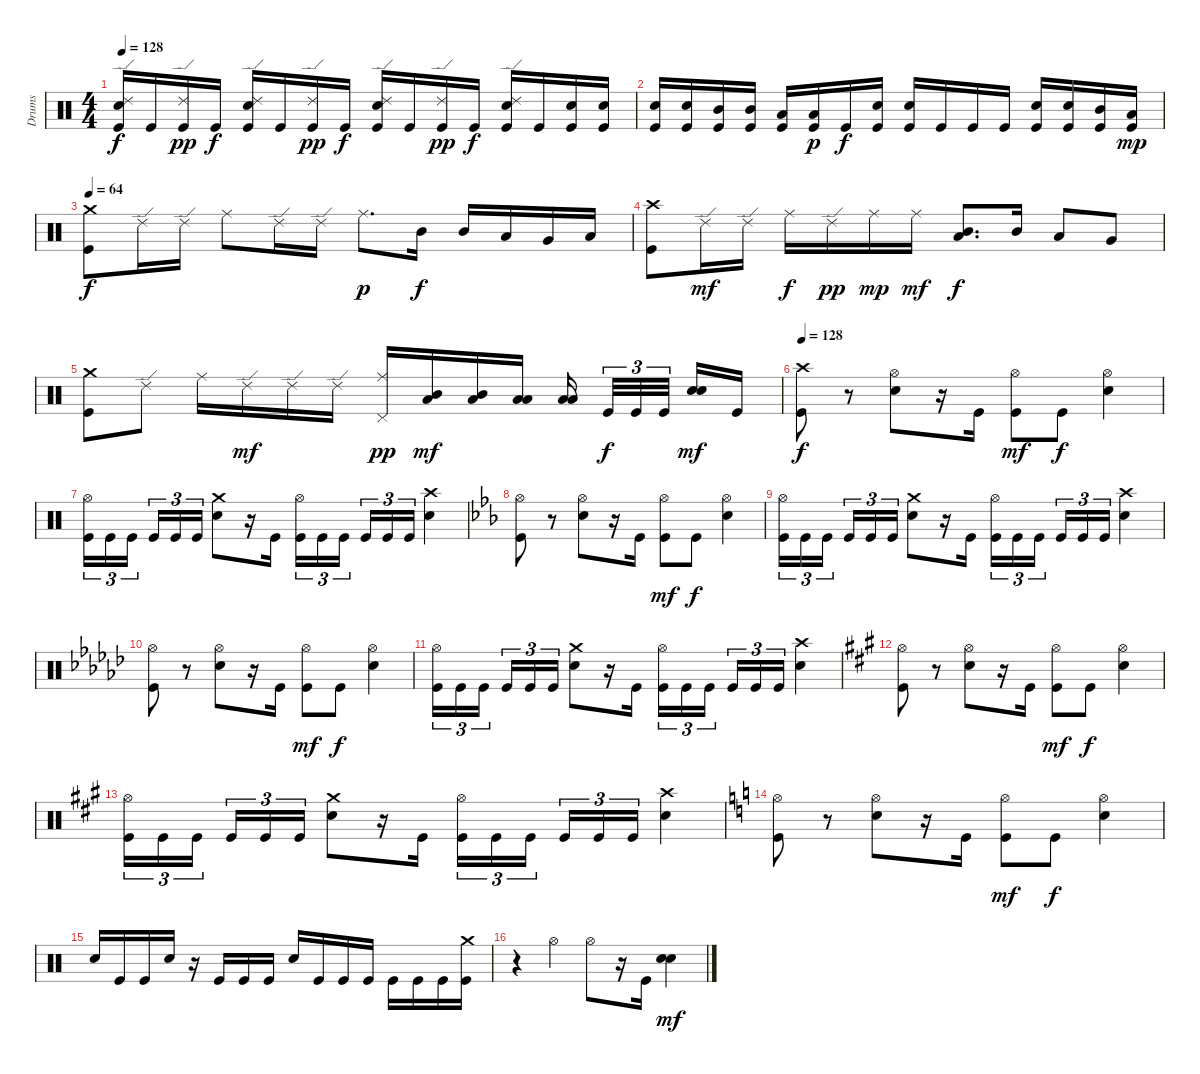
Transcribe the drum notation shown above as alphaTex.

\track ("Drums" "Drums") {instrument percussion}
\staff {score}
\articulation defaults
\ts (4 4)
\tempo 128
\clef neutral
\ks c
("Ride (edge) 2" "Electric Snare (hit)" "Kick (hit)").16{dy f} "Kick (hit)".16 ("Ride (edge) 2" "Kick (hit)").16{dy pp} "Kick (hit)".16{dy f} ("Ride (edge) 2" "Electric Snare (hit)" "Kick (hit)").16 "Kick (hit)".16 ("Ride (edge) 2" "Kick (hit)").16{dy pp} "Kick (hit)".16{dy f} ("Ride (edge) 2" "Electric Snare (hit)" "Kick (hit)").16 "Kick (hit)".16 ("Ride (edge) 2" "Kick (hit)").16{dy pp} "Kick (hit)".16{dy f} ("Ride (edge) 2" "Electric Snare (hit)" "Kick (hit)").16 "Kick (hit)".16 ("Electric Snare (hit)" "Kick (hit)").16 ("Electric Snare (hit)" "Kick (hit)").16 |
("Electric Snare (hit)" "Kick (hit)").16 ("Electric Snare (hit)" "Kick (hit)").16 ("Mid Tom (hit)" "Kick (hit)").16 ("Mid Tom (hit)" "Kick (hit)").16 ("Low Tom (hit)" "Kick (hit)").16 ("Low Tom (hit)" "Kick (hit)").16{dy p} "Kick (hit)".16{dy f} ("Electric Snare (hit)" "Kick (hit)").16 ("Electric Snare (hit)" "Kick (hit)").16 "Kick (hit)".16 "Kick (hit)".16 "Kick (hit)".16 ("Electric Snare (hit)" "Kick (hit)").16 ("Electric Snare (hit)" "Kick (hit)").16 ("Mid Tom (hit)" "Kick (hit)").16 ("Low Tom (hit)" "Kick (hit)").16{dy mp} |
\tempo 64
("Crash medium (hit)" "Kick (hit)").8{dy f} "Ride (edge) 2".16 "Ride (edge) 2".16 "Ride (middle)".8 "Ride (edge) 2".16 "Ride (edge) 2".16 "Ride (middle)".8{d dy p} "Mid Tom (hit)".16{dy f} "Mid Tom (hit)".16 "Low Tom (hit)".16 "Very Low Tom (hit)".16 "Low Floor Tom (hit)".16 |
("Crash high (hit)" "Kick (hit)").8 "Ride (edge) 2".16{dy mf} "Ride (edge) 2".16 "Ride (middle)".16{dy f} "Ride (edge) 2".16{dy pp} "Ride (middle)".16{dy mp} "Ride (middle)".16{dy mf} ("Mid Tom (hit)" "Low Tom (hit)").8{d dy f} "Mid Tom (hit)".16 "Low Tom (hit)".8 "Very Low Tom (hit)".8 |
("Crash medium (hit)" "Kick (hit)").8 "Ride (edge) 2".8 "Ride (middle)".16 "Ride (edge) 2".16{dy mf} "Ride (edge) 2".16 "Ride (edge) 2".16 ("Ride (middle)" "Pedal Hi-Hat (hit)").16{dy pp} ("Mid Tom (hit)" "Low Tom (hit)").16{dy mf} ("Mid Tom (hit)" "Low Tom (hit)").16 ("Low Tom (hit)" "Low Tom (hit)").16 ("Low Tom (hit)" "Low Tom (hit)").16{beam splitsecondary} "Kick (hit)".32{tu (3 2) dy f} "Kick (hit)".32{tu (3 2)} "Kick (hit)".32{tu (3 2) beam splitsecondary} ("Electric Snare (hit)" "Electric Snare (hit)").16{bd 60 dy mf} "Kick (hit)".16 |
\tempo 128
("Crash high (hit)" "Kick (hit)").8{dy f} r.8 ("Hi-Hat (open)" "Electric Snare (hit)").8 r.16 "Kick (hit)".16 ("Hi-Hat (open)" "Kick (hit)").8{dy mf} "Kick (hit)".8{dy f} ("Hi-Hat (open)" "Electric Snare (hit)").4 |
("Hi-Hat (open)" "Kick (hit)").16{tu (3 2)} "Kick (hit)".16{tu (3 2)} "Kick (hit)".16{tu (3 2) beam splitsecondary} "Kick (hit)".16{tu (3 2)} "Kick (hit)".16{tu (3 2)} "Kick (hit)".16{tu (3 2)} ("Crash medium (hit)" "Electric Snare (hit)").8 r.16 "Kick (hit)".16 ("Hi-Hat (open)" "Kick (hit)").16{tu (3 2)} "Kick (hit)".16{tu (3 2)} "Kick (hit)".16{tu (3 2) beam splitsecondary} "Kick (hit)".16{tu (3 2)} "Kick (hit)".16{tu (3 2)} "Kick (hit)".16{tu (3 2)} ("Crash high (hit)" "Electric Snare (hit)").4 |
\ks cminor
("Hi-Hat (open)" "Kick (hit)").8 r.8 ("Hi-Hat (open)" "Electric Snare (hit)").8 r.16 "Kick (hit)".16 ("Hi-Hat (open)" "Kick (hit)").8{dy mf} "Kick (hit)".8{dy f} ("Hi-Hat (open)" "Electric Snare (hit)").4 |
("Hi-Hat (open)" "Kick (hit)").16{tu (3 2)} "Kick (hit)".16{tu (3 2)} "Kick (hit)".16{tu (3 2) beam splitsecondary} "Kick (hit)".16{tu (3 2)} "Kick (hit)".16{tu (3 2)} "Kick (hit)".16{tu (3 2)} ("Crash medium (hit)" "Electric Snare (hit)").8 r.16 "Kick (hit)".16 ("Hi-Hat (open)" "Kick (hit)").16{tu (3 2)} "Kick (hit)".16{tu (3 2)} "Kick (hit)".16{tu (3 2) beam splitsecondary} "Kick (hit)".16{tu (3 2)} "Kick (hit)".16{tu (3 2)} "Kick (hit)".16{tu (3 2)} ("Crash high (hit)" "Electric Snare (hit)").4 |
\ks ebminor
("Hi-Hat (open)" "Kick (hit)").8 r.8 ("Hi-Hat (open)" "Electric Snare (hit)").8 r.16 "Kick (hit)".16 ("Hi-Hat (open)" "Kick (hit)").8{dy mf} "Kick (hit)".8{dy f} ("Hi-Hat (open)" "Electric Snare (hit)").4 |
("Hi-Hat (open)" "Kick (hit)").16{tu (3 2)} "Kick (hit)".16{tu (3 2)} "Kick (hit)".16{tu (3 2) beam splitsecondary} "Kick (hit)".16{tu (3 2)} "Kick (hit)".16{tu (3 2)} "Kick (hit)".16{tu (3 2)} ("Crash medium (hit)" "Electric Snare (hit)").8 r.16 "Kick (hit)".16 ("Hi-Hat (open)" "Kick (hit)").16{tu (3 2)} "Kick (hit)".16{tu (3 2)} "Kick (hit)".16{tu (3 2) beam splitsecondary} "Kick (hit)".16{tu (3 2)} "Kick (hit)".16{tu (3 2)} "Kick (hit)".16{tu (3 2)} ("Crash high (hit)" "Electric Snare (hit)").4 |
\ks f#minor
("Hi-Hat (open)" "Kick (hit)").8 r.8 ("Hi-Hat (open)" "Electric Snare (hit)").8 r.16 "Kick (hit)".16 ("Hi-Hat (open)" "Kick (hit)").8{dy mf} "Kick (hit)".8{dy f} ("Hi-Hat (open)" "Electric Snare (hit)").4 |
("Hi-Hat (open)" "Kick (hit)").16{tu (3 2)} "Kick (hit)".16{tu (3 2)} "Kick (hit)".16{tu (3 2) beam splitsecondary} "Kick (hit)".16{tu (3 2)} "Kick (hit)".16{tu (3 2)} "Kick (hit)".16{tu (3 2)} ("Crash medium (hit)" "Electric Snare (hit)").8 r.16 "Kick (hit)".16 ("Hi-Hat (open)" "Kick (hit)").16{tu (3 2)} "Kick (hit)".16{tu (3 2)} "Kick (hit)".16{tu (3 2) beam splitsecondary} "Kick (hit)".16{tu (3 2)} "Kick (hit)".16{tu (3 2)} "Kick (hit)".16{tu (3 2)} ("Crash high (hit)" "Electric Snare (hit)").4 |
\ks aminor
("Hi-Hat (open)" "Kick (hit)").8 r.8 ("Hi-Hat (open)" "Electric Snare (hit)").8 r.16 "Kick (hit)".16 ("Hi-Hat (open)" "Kick (hit)").8{dy mf} "Kick (hit)".8{dy f} ("Hi-Hat (open)" "Electric Snare (hit)").4 |
"Electric Snare (hit)".16 "Kick (hit)".16 "Kick (hit)".16 "Electric Snare (hit)".16 r.16 "Kick (hit)".16 "Kick (hit)".16 "Kick (hit)".16 "Electric Snare (hit)".16 "Kick (hit)".16 "Kick (hit)".16 "Kick (hit)".16 "Kick (hit)".16 "Kick (hit)".16 "Kick (hit)".16 ("Crash medium (hit)" "Kick (hit)").16 |
r.4 "Hi-Hat (open)".4 "Hi-Hat (open)".8 r.16 "Kick (hit)".16 ("Electric Snare (hit)" "Electric Snare (hit)").4{bd 60 dy mf}
